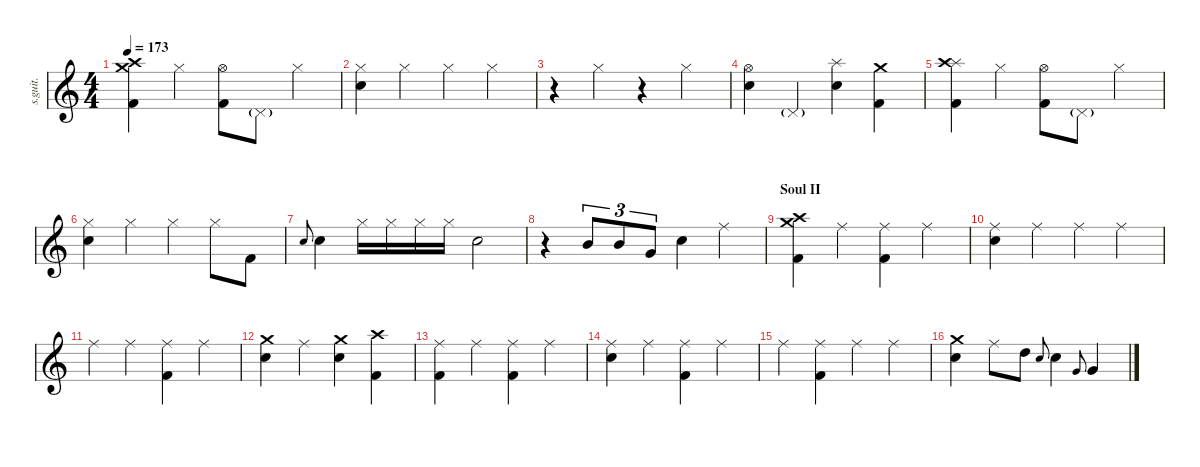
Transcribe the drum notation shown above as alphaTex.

\defaultSystemsLayout 4
\hideDynamics
\bracketExtendMode nobrackets
\track ("II" "s.guit.") {instrument percussion}
\staff {score}
\articulation defaults
\ts (4 4)
\tempo 173
\clef g2
\ks c
("Kick (hit) 2" "Crash medium (hit)" "Crash high (hit)").4{lyrics (0 "") lyrics (1 "") lyrics (2 "") lyrics (3 "") lyrics (4 "") dy mf} "Hi-Hat (closed)".4{lyrics (0 "") lyrics (1 "") lyrics (2 "") lyrics (3 "") lyrics (4 "")} ("Hi-Hat (open)" "Kick (hit) 2").8{lyrics (0 "") lyrics (1 "") lyrics (2 "") lyrics (3 "") lyrics (4 "")} "Pedal Hi-Hat (hit)"{g}.8{lyrics (0 "") lyrics (1 "") lyrics (2 "") lyrics (3 "") lyrics (4 "") dy pp} "Hi-Hat (closed)".4{lyrics (0 "") lyrics (1 "") lyrics (2 "") lyrics (3 "") lyrics (4 "") dy mf} |
("Hi-Hat (closed)" "Snare (hit) 2").4{lyrics (0 "") lyrics (1 "") lyrics (2 "") lyrics (3 "") lyrics (4 "")} "Hi-Hat (closed)".4{lyrics (0 "") lyrics (1 "") lyrics (2 "") lyrics (3 "") lyrics (4 "")} "Hi-Hat (closed)".4{lyrics (0 "") lyrics (1 "") lyrics (2 "") lyrics (3 "") lyrics (4 "")} "Hi-Hat (closed)".4{lyrics (0 "") lyrics (1 "") lyrics (2 "") lyrics (3 "") lyrics (4 "")} |
r.4 "Hi-Hat (closed)".4{lyrics (0 "") lyrics (1 "") lyrics (2 "") lyrics (3 "") lyrics (4 "")} r.4 "Hi-Hat (closed)".4{lyrics (0 "") lyrics (1 "") lyrics (2 "") lyrics (3 "") lyrics (4 "")} |
("Snare (hit) 2" "Hi-Hat (open)").4{lyrics (0 "") lyrics (1 "") lyrics (2 "") lyrics (3 "") lyrics (4 "")} "Pedal Hi-Hat (hit)"{g}.4{lyrics (0 "") lyrics (1 "") lyrics (2 "") lyrics (3 "") lyrics (4 "") dy pp} ("Snare (hit) 2" "Splash (hit)").4{lyrics (0 "") lyrics (1 "") lyrics (2 "") lyrics (3 "") lyrics (4 "") dy mf} ("Crash medium (hit)" "Kick (hit) 2").4{lyrics (0 "") lyrics (1 "") lyrics (2 "") lyrics (3 "") lyrics (4 "")} |
("Kick (hit) 2" "Splash (hit)" "Crash high (hit)").4{lyrics (0 "") lyrics (1 "") lyrics (2 "") lyrics (3 "") lyrics (4 "")} "Hi-Hat (closed)".4{lyrics (0 "") lyrics (1 "") lyrics (2 "") lyrics (3 "") lyrics (4 "")} ("Hi-Hat (open)" "Kick (hit) 2").8{lyrics (0 "") lyrics (1 "") lyrics (2 "") lyrics (3 "") lyrics (4 "")} "Pedal Hi-Hat (hit)"{g}.8{lyrics (0 "") lyrics (1 "") lyrics (2 "") lyrics (3 "") lyrics (4 "") dy pp} "Hi-Hat (closed)".4{lyrics (0 "") lyrics (1 "") lyrics (2 "") lyrics (3 "") lyrics (4 "") dy mf} |
("Hi-Hat (closed)" "Snare (hit) 2").4{lyrics (0 "") lyrics (1 "") lyrics (2 "") lyrics (3 "") lyrics (4 "")} "Hi-Hat (closed)".4{lyrics (0 "") lyrics (1 "") lyrics (2 "") lyrics (3 "") lyrics (4 "")} "Hi-Hat (closed)".4{lyrics (0 "") lyrics (1 "") lyrics (2 "") lyrics (3 "") lyrics (4 "")} "Hi-Hat (closed)".8{lyrics (0 "") lyrics (1 "") lyrics (2 "") lyrics (3 "") lyrics (4 "")} "Kick (hit) 2".8{lyrics (0 "") lyrics (1 "") lyrics (2 "") lyrics (3 "") lyrics (4 "")} |
"Snare (hit) 2".8{lyrics (0 "") lyrics (1 "") lyrics (2 "") lyrics (3 "") lyrics (4 "") gr onbeat} "Snare (hit) 2".4{lyrics (0 "") lyrics (1 "") lyrics (2 "") lyrics (3 "") lyrics (4 "")} "Hi-Hat (closed)".16{lyrics (0 "") lyrics (1 "") lyrics (2 "") lyrics (3 "") lyrics (4 "")} "Hi-Hat (closed)".16{lyrics (0 "") lyrics (1 "") lyrics (2 "") lyrics (3 "") lyrics (4 "")} "Hi-Hat (closed)".16{lyrics (0 "") lyrics (1 "") lyrics (2 "") lyrics (3 "") lyrics (4 "")} "Hi-Hat (closed)".16{lyrics (0 "") lyrics (1 "") lyrics (2 "") lyrics (3 "") lyrics (4 "")} "Snare (hit) 2".2{lyrics (0 "") lyrics (1 "") lyrics (2 "") lyrics (3 "") lyrics (4 "")} |
r.4 "Mid Tom (hit)".8{tu (3 2) lyrics (0 "") lyrics (1 "") lyrics (2 "") lyrics (3 "") lyrics (4 "")} "Mid Tom (hit)".8{tu (3 2) lyrics (0 "") lyrics (1 "") lyrics (2 "") lyrics (3 "") lyrics (4 "")} "Very Low Tom (hit)".8{tu (3 2) lyrics (0 "") lyrics (1 "") lyrics (2 "") lyrics (3 "") lyrics (4 "")} "Snare (hit) 2".4{lyrics (0 "") lyrics (1 "") lyrics (2 "") lyrics (3 "") lyrics (4 "")} "Ride (middle)".4{lyrics (0 "") lyrics (1 "") lyrics (2 "") lyrics (3 "") lyrics (4 "")} |
\section ("" "Soul II")
("Kick (hit) 2" "Crash medium (hit)" "Crash high (hit)").4{lyrics (0 "") lyrics (1 "") lyrics (2 "") lyrics (3 "") lyrics (4 "")} "Ride (middle)".4{lyrics (0 "") lyrics (1 "") lyrics (2 "") lyrics (3 "") lyrics (4 "")} ("Ride (middle)" "Kick (hit) 2").4{lyrics (0 "") lyrics (1 "") lyrics (2 "") lyrics (3 "") lyrics (4 "")} "Ride (middle)".4{lyrics (0 "") lyrics (1 "") lyrics (2 "") lyrics (3 "") lyrics (4 "")} |
("Ride (middle)" "Snare (hit) 2").4{lyrics (0 "") lyrics (1 "") lyrics (2 "") lyrics (3 "") lyrics (4 "")} "Ride (middle)".4{lyrics (0 "") lyrics (1 "") lyrics (2 "") lyrics (3 "") lyrics (4 "")} "Ride (middle)".4{lyrics (0 "") lyrics (1 "") lyrics (2 "") lyrics (3 "") lyrics (4 "")} "Ride (middle)".4{lyrics (0 "") lyrics (1 "") lyrics (2 "") lyrics (3 "") lyrics (4 "")} |
"Ride (middle)".4{lyrics (0 "") lyrics (1 "") lyrics (2 "") lyrics (3 "") lyrics (4 "")} "Ride (middle)".4{lyrics (0 "") lyrics (1 "") lyrics (2 "") lyrics (3 "") lyrics (4 "")} ("Ride (middle)" "Kick (hit) 2").4{lyrics (0 "") lyrics (1 "") lyrics (2 "") lyrics (3 "") lyrics (4 "")} "Ride (middle)".4{lyrics (0 "") lyrics (1 "") lyrics (2 "") lyrics (3 "") lyrics (4 "")} |
("Snare (hit) 2" "Crash medium (hit)").4{lyrics (0 "") lyrics (1 "") lyrics (2 "") lyrics (3 "") lyrics (4 "")} "Ride (middle)".4{lyrics (0 "") lyrics (1 "") lyrics (2 "") lyrics (3 "") lyrics (4 "")} ("Snare (hit) 2" "Crash medium (hit)").4{lyrics (0 "") lyrics (1 "") lyrics (2 "") lyrics (3 "") lyrics (4 "")} ("Crash high (hit)" "Kick (hit) 2").4{lyrics (0 "") lyrics (1 "") lyrics (2 "") lyrics (3 "") lyrics (4 "")} |
("Kick (hit) 2" "Ride (middle)").4{lyrics (0 "") lyrics (1 "") lyrics (2 "") lyrics (3 "") lyrics (4 "")} "Ride (middle)".4{lyrics (0 "") lyrics (1 "") lyrics (2 "") lyrics (3 "") lyrics (4 "")} ("Ride (middle)" "Kick (hit) 2").4{lyrics (0 "") lyrics (1 "") lyrics (2 "") lyrics (3 "") lyrics (4 "")} "Ride (middle)".4{lyrics (0 "") lyrics (1 "") lyrics (2 "") lyrics (3 "") lyrics (4 "")} |
("Ride (middle)" "Snare (hit) 2").4{lyrics (0 "") lyrics (1 "") lyrics (2 "") lyrics (3 "") lyrics (4 "")} "Ride (middle)".4{lyrics (0 "") lyrics (1 "") lyrics (2 "") lyrics (3 "") lyrics (4 "")} ("Ride (middle)" "Kick (hit) 2").4{lyrics (0 "") lyrics (1 "") lyrics (2 "") lyrics (3 "") lyrics (4 "")} "Ride (middle)".4{lyrics (0 "") lyrics (1 "") lyrics (2 "") lyrics (3 "") lyrics (4 "")} |
"Ride (middle)".4{lyrics (0 "") lyrics (1 "") lyrics (2 "") lyrics (3 "") lyrics (4 "")} ("Ride (middle)" "Kick (hit) 2").4{lyrics (0 "") lyrics (1 "") lyrics (2 "") lyrics (3 "") lyrics (4 "")} "Ride (middle)".4{lyrics (0 "") lyrics (1 "") lyrics (2 "") lyrics (3 "") lyrics (4 "")} "Ride (middle)".4{lyrics (0 "") lyrics (1 "") lyrics (2 "") lyrics (3 "") lyrics (4 "")} |
("Snare (hit) 2" "Crash medium (hit)").4{lyrics (0 "") lyrics (1 "") lyrics (2 "") lyrics (3 "") lyrics (4 "")} "Ride (middle)".8{lyrics (0 "") lyrics (1 "") lyrics (2 "") lyrics (3 "") lyrics (4 "")} "High Tom (hit)".8{lyrics (0 "") lyrics (1 "") lyrics (2 "") lyrics (3 "") lyrics (4 "")} "Snare (hit) 2".8{lyrics (0 "") lyrics (1 "") lyrics (2 "") lyrics (3 "") lyrics (4 "") gr onbeat} "Snare (hit) 2".4{lyrics (0 "") lyrics (1 "") lyrics (2 "") lyrics (3 "") lyrics (4 "")} "Very Low Tom (hit)".8{lyrics (0 "") lyrics (1 "") lyrics (2 "") lyrics (3 "") lyrics (4 "") gr onbeat} "Very Low Tom (hit)".4{lyrics (0 "") lyrics (1 "") lyrics (2 "") lyrics (3 "") lyrics (4 "")}
